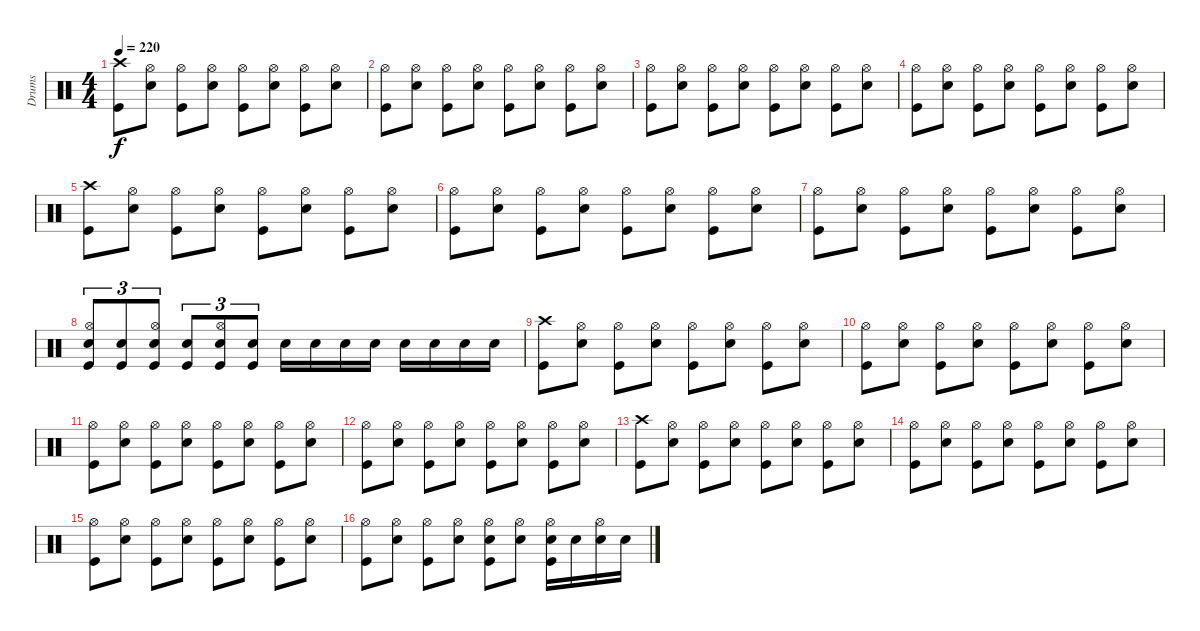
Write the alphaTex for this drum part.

\track ("Drums" "Drums") {instrument percussion}
\staff {score}
\articulation defaults
\ts (4 4)
\tempo 220
\clef neutral
\ks c
("Crash high (hit)" "Kick (hit)").8{dy f} ("Hi-Hat (open)" "Electric Snare (hit)").8 ("Hi-Hat (open)" "Kick (hit)").8 ("Hi-Hat (open)" "Electric Snare (hit)").8 ("Hi-Hat (open)" "Kick (hit)").8 ("Hi-Hat (open)" "Electric Snare (hit)").8 ("Hi-Hat (open)" "Kick (hit)").8 ("Hi-Hat (open)" "Electric Snare (hit)").8 |
("Hi-Hat (open)" "Kick (hit)").8 ("Hi-Hat (open)" "Electric Snare (hit)").8 ("Hi-Hat (open)" "Kick (hit)").8 ("Hi-Hat (open)" "Electric Snare (hit)").8 ("Hi-Hat (open)" "Kick (hit)").8 ("Hi-Hat (open)" "Electric Snare (hit)").8 ("Hi-Hat (open)" "Kick (hit)").8 ("Hi-Hat (open)" "Electric Snare (hit)").8 |
("Hi-Hat (open)" "Kick (hit)").8 ("Hi-Hat (open)" "Electric Snare (hit)").8 ("Hi-Hat (open)" "Kick (hit)").8 ("Hi-Hat (open)" "Electric Snare (hit)").8 ("Hi-Hat (open)" "Kick (hit)").8 ("Hi-Hat (open)" "Electric Snare (hit)").8 ("Hi-Hat (open)" "Kick (hit)").8 ("Hi-Hat (open)" "Electric Snare (hit)").8 |
("Hi-Hat (open)" "Kick (hit)").8 ("Hi-Hat (open)" "Electric Snare (hit)").8 ("Hi-Hat (open)" "Kick (hit)").8 ("Hi-Hat (open)" "Electric Snare (hit)").8 ("Hi-Hat (open)" "Kick (hit)").8 ("Hi-Hat (open)" "Electric Snare (hit)").8 ("Hi-Hat (open)" "Kick (hit)").8 ("Hi-Hat (open)" "Electric Snare (hit)").8 |
("Crash high (hit)" "Kick (hit)").8 ("Hi-Hat (open)" "Electric Snare (hit)").8 ("Hi-Hat (open)" "Kick (hit)").8 ("Hi-Hat (open)" "Electric Snare (hit)").8 ("Hi-Hat (open)" "Kick (hit)").8 ("Hi-Hat (open)" "Electric Snare (hit)").8 ("Hi-Hat (open)" "Kick (hit)").8 ("Hi-Hat (open)" "Electric Snare (hit)").8 |
("Hi-Hat (open)" "Kick (hit)").8 ("Hi-Hat (open)" "Electric Snare (hit)").8 ("Hi-Hat (open)" "Kick (hit)").8 ("Hi-Hat (open)" "Electric Snare (hit)").8 ("Hi-Hat (open)" "Kick (hit)").8 ("Hi-Hat (open)" "Electric Snare (hit)").8 ("Hi-Hat (open)" "Kick (hit)").8 ("Hi-Hat (open)" "Electric Snare (hit)").8 |
("Hi-Hat (open)" "Kick (hit)").8 ("Hi-Hat (open)" "Electric Snare (hit)").8 ("Hi-Hat (open)" "Kick (hit)").8 ("Hi-Hat (open)" "Electric Snare (hit)").8 ("Hi-Hat (open)" "Kick (hit)").8 ("Hi-Hat (open)" "Electric Snare (hit)").8 ("Hi-Hat (open)" "Kick (hit)").8 ("Hi-Hat (open)" "Electric Snare (hit)").8 |
("Hi-Hat (open)" "Electric Snare (hit)" "Kick (hit)").8{tu (3 2)} ("Electric Snare (hit)" "Kick (hit)").8{tu (3 2)} ("Hi-Hat (open)" "Electric Snare (hit)" "Kick (hit)").8{tu (3 2)} ("Electric Snare (hit)" "Kick (hit)").8{tu (3 2)} ("Hi-Hat (open)" "Electric Snare (hit)" "Kick (hit)").8{tu (3 2)} ("Electric Snare (hit)" "Kick (hit)").8{tu (3 2)} "Electric Snare (hit)".16 "Electric Snare (hit)".16 "Electric Snare (hit)".16 "Electric Snare (hit)".16 "Electric Snare (hit)".16 "Electric Snare (hit)".16 "Electric Snare (hit)".16 "Electric Snare (hit)".16 |
("Crash high (hit)" "Kick (hit)").8 ("Hi-Hat (open)" "Electric Snare (hit)").8 ("Hi-Hat (open)" "Kick (hit)").8 ("Hi-Hat (open)" "Electric Snare (hit)").8 ("Hi-Hat (open)" "Kick (hit)").8 ("Hi-Hat (open)" "Electric Snare (hit)").8 ("Hi-Hat (open)" "Kick (hit)").8 ("Hi-Hat (open)" "Electric Snare (hit)").8 |
("Hi-Hat (open)" "Kick (hit)").8 ("Hi-Hat (open)" "Electric Snare (hit)").8 ("Hi-Hat (open)" "Kick (hit)").8 ("Hi-Hat (open)" "Electric Snare (hit)").8 ("Hi-Hat (open)" "Kick (hit)").8 ("Hi-Hat (open)" "Electric Snare (hit)").8 ("Hi-Hat (open)" "Kick (hit)").8 ("Hi-Hat (open)" "Electric Snare (hit)").8 |
("Hi-Hat (open)" "Kick (hit)").8 ("Hi-Hat (open)" "Electric Snare (hit)").8 ("Hi-Hat (open)" "Kick (hit)").8 ("Hi-Hat (open)" "Electric Snare (hit)").8 ("Hi-Hat (open)" "Kick (hit)").8 ("Hi-Hat (open)" "Electric Snare (hit)").8 ("Hi-Hat (open)" "Kick (hit)").8 ("Hi-Hat (open)" "Electric Snare (hit)").8 |
("Hi-Hat (open)" "Kick (hit)").8 ("Hi-Hat (open)" "Electric Snare (hit)").8 ("Hi-Hat (open)" "Kick (hit)").8 ("Hi-Hat (open)" "Electric Snare (hit)").8 ("Hi-Hat (open)" "Kick (hit)").8 ("Hi-Hat (open)" "Electric Snare (hit)").8 ("Hi-Hat (open)" "Kick (hit)").8 ("Hi-Hat (open)" "Electric Snare (hit)").8 |
("Crash high (hit)" "Kick (hit)").8 ("Hi-Hat (open)" "Electric Snare (hit)").8 ("Hi-Hat (open)" "Kick (hit)").8 ("Hi-Hat (open)" "Electric Snare (hit)").8 ("Hi-Hat (open)" "Kick (hit)").8 ("Hi-Hat (open)" "Electric Snare (hit)").8 ("Hi-Hat (open)" "Kick (hit)").8 ("Hi-Hat (open)" "Electric Snare (hit)").8 |
("Hi-Hat (open)" "Kick (hit)").8 ("Hi-Hat (open)" "Electric Snare (hit)").8 ("Hi-Hat (open)" "Kick (hit)").8 ("Hi-Hat (open)" "Electric Snare (hit)").8 ("Hi-Hat (open)" "Kick (hit)").8 ("Hi-Hat (open)" "Electric Snare (hit)").8 ("Hi-Hat (open)" "Kick (hit)").8 ("Hi-Hat (open)" "Electric Snare (hit)").8 |
("Hi-Hat (open)" "Kick (hit)").8 ("Hi-Hat (open)" "Electric Snare (hit)").8 ("Hi-Hat (open)" "Kick (hit)").8 ("Hi-Hat (open)" "Electric Snare (hit)").8 ("Hi-Hat (open)" "Kick (hit)").8 ("Hi-Hat (open)" "Electric Snare (hit)").8 ("Hi-Hat (open)" "Kick (hit)").8 ("Hi-Hat (open)" "Electric Snare (hit)").8 |
("Hi-Hat (open)" "Kick (hit)").8 ("Hi-Hat (open)" "Electric Snare (hit)").8 ("Hi-Hat (open)" "Kick (hit)").8 ("Hi-Hat (open)" "Electric Snare (hit)").8 ("Hi-Hat (open)" "Electric Snare (hit)" "Kick (hit)").8 ("Hi-Hat (open)" "Electric Snare (hit)").8 ("Hi-Hat (open)" "Electric Snare (hit)" "Kick (hit)").16 "Electric Snare (hit)".16 ("Hi-Hat (open)" "Electric Snare (hit)").16 "Electric Snare (hit)".16
